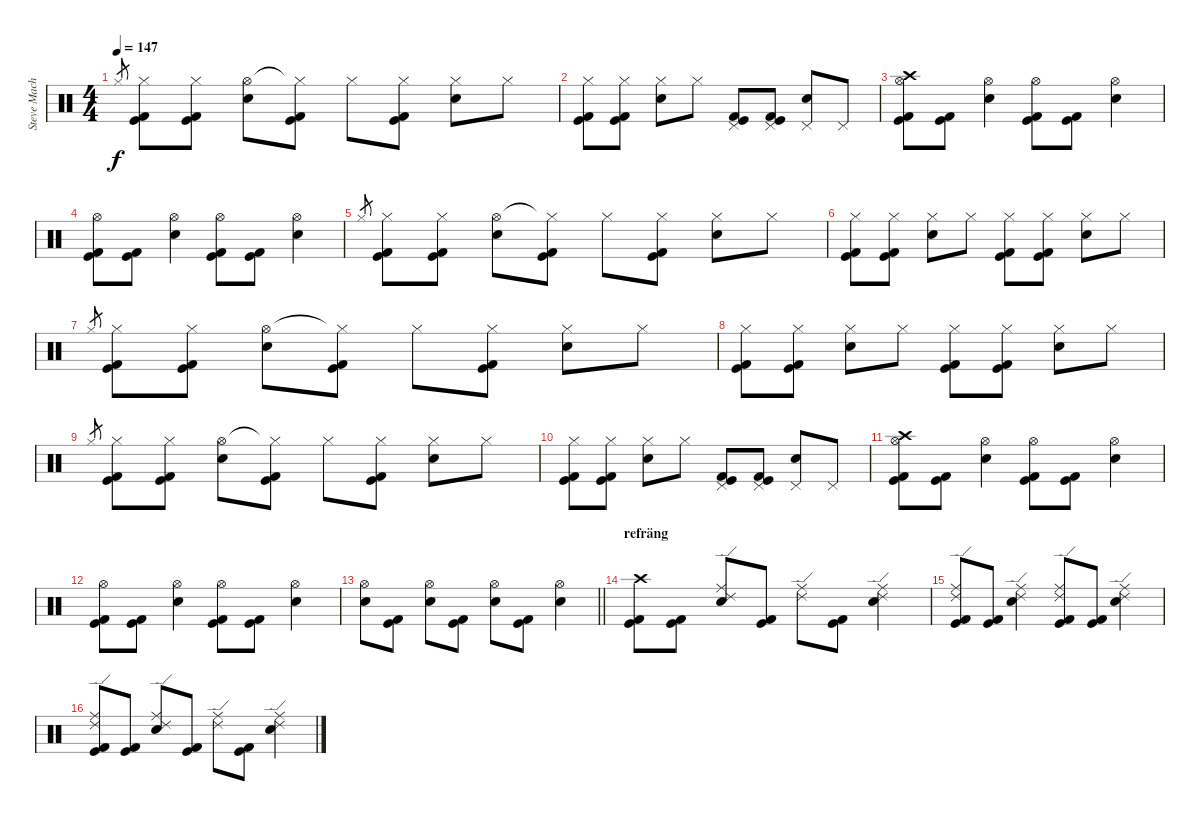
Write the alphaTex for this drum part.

\track ("Steve Machine West" "Steve Mach") {instrument percussion}
\staff {score}
\articulation defaults
\ts (4 4)
\tempo 147
\clef neutral
\ks c "Hi-Hat (closed)".8{gr dy f}
("Hi-Hat (closed)" "Kick (hit)" "Kick (hit) 2").8 ("Hi-Hat (closed)" "Kick (hit)" "Kick (hit) 2").8 ("Hi-Hat (open)" "Electric Snare (hit)").8 ("Hi-Hat (closed)"{t} "Kick (hit)" "Kick (hit) 2").8 "Hi-Hat (closed)".8 ("Hi-Hat (closed)" "Kick (hit)" "Kick (hit) 2").8 ("Hi-Hat (closed)" "Electric Snare (hit)").8 "Hi-Hat (closed)".8 |
("Hi-Hat (closed)" "Kick (hit)" "Kick (hit) 2").8 ("Hi-Hat (closed)" "Kick (hit)" "Kick (hit) 2").8 ("Hi-Hat (closed)" "Electric Snare (hit)").8 "Hi-Hat (closed)".8 ("Pedal Hi-Hat (hit)" "Kick (hit)" "Kick (hit) 2").8 ("Pedal Hi-Hat (hit)" "Kick (hit)" "Kick (hit) 2").8 ("Pedal Hi-Hat (hit)" "Electric Snare (hit)").8 "Pedal Hi-Hat (hit)".8 |
("Crash high (hit)" "Hi-Hat (open)" "Kick (hit)" "Kick (hit) 2").8 ("Kick (hit)" "Kick (hit) 2").8 ("Hi-Hat (open)" "Electric Snare (hit)").4 ("Hi-Hat (open)" "Kick (hit)" "Kick (hit) 2").8 ("Kick (hit)" "Kick (hit) 2").8 ("Hi-Hat (open)" "Electric Snare (hit)").4 |
("Hi-Hat (open)" "Kick (hit)" "Kick (hit) 2").8 ("Kick (hit)" "Kick (hit) 2").8 ("Hi-Hat (open)" "Electric Snare (hit)").4 ("Hi-Hat (open)" "Kick (hit)" "Kick (hit) 2").8 ("Kick (hit)" "Kick (hit) 2").8 ("Hi-Hat (open)" "Electric Snare (hit)").4 |
"Hi-Hat (closed)".8{gr} ("Hi-Hat (closed)" "Kick (hit)" "Kick (hit) 2").8 ("Hi-Hat (closed)" "Kick (hit)" "Kick (hit) 2").8 ("Hi-Hat (open)" "Electric Snare (hit)").8 ("Hi-Hat (closed)"{t} "Kick (hit)" "Kick (hit) 2").8 "Hi-Hat (closed)".8 ("Hi-Hat (closed)" "Kick (hit)" "Kick (hit) 2").8 ("Hi-Hat (closed)" "Electric Snare (hit)").8 "Hi-Hat (closed)".8 |
("Hi-Hat (closed)" "Kick (hit)" "Kick (hit) 2").8 ("Hi-Hat (closed)" "Kick (hit)" "Kick (hit) 2").8 ("Hi-Hat (closed)" "Electric Snare (hit)").8 "Hi-Hat (closed)".8 ("Hi-Hat (closed)" "Kick (hit)" "Kick (hit) 2").8 ("Hi-Hat (closed)" "Kick (hit)" "Kick (hit) 2").8 ("Hi-Hat (closed)" "Electric Snare (hit)").8 "Hi-Hat (closed)".8 |
"Hi-Hat (closed)".8{gr} ("Hi-Hat (closed)" "Kick (hit)" "Kick (hit) 2").8 ("Hi-Hat (closed)" "Kick (hit)" "Kick (hit) 2").8 ("Hi-Hat (open)" "Electric Snare (hit)").8 ("Hi-Hat (closed)"{t} "Kick (hit)" "Kick (hit) 2").8 "Hi-Hat (closed)".8 ("Hi-Hat (closed)" "Kick (hit)" "Kick (hit) 2").8 ("Hi-Hat (closed)" "Electric Snare (hit)").8 "Hi-Hat (closed)".8 |
("Hi-Hat (closed)" "Kick (hit)" "Kick (hit) 2").8 ("Hi-Hat (closed)" "Kick (hit)" "Kick (hit) 2").8 ("Hi-Hat (closed)" "Electric Snare (hit)").8 "Hi-Hat (closed)".8 ("Hi-Hat (closed)" "Kick (hit)" "Kick (hit) 2").8 ("Hi-Hat (closed)" "Kick (hit)" "Kick (hit) 2").8 ("Hi-Hat (closed)" "Electric Snare (hit)").8 "Hi-Hat (closed)".8 |
"Hi-Hat (closed)".8{gr} ("Hi-Hat (closed)" "Kick (hit)" "Kick (hit) 2").8 ("Hi-Hat (closed)" "Kick (hit)" "Kick (hit) 2").8 ("Hi-Hat (open)" "Electric Snare (hit)").8 ("Hi-Hat (closed)"{t} "Kick (hit)" "Kick (hit) 2").8 "Hi-Hat (closed)".8 ("Hi-Hat (closed)" "Kick (hit)" "Kick (hit) 2").8 ("Hi-Hat (closed)" "Electric Snare (hit)").8 "Hi-Hat (closed)".8 |
("Hi-Hat (closed)" "Kick (hit)" "Kick (hit) 2").8 ("Hi-Hat (closed)" "Kick (hit)" "Kick (hit) 2").8 ("Hi-Hat (closed)" "Electric Snare (hit)").8 "Hi-Hat (closed)".8 ("Pedal Hi-Hat (hit)" "Kick (hit)" "Kick (hit) 2").8 ("Pedal Hi-Hat (hit)" "Kick (hit)" "Kick (hit) 2").8 ("Pedal Hi-Hat (hit)" "Electric Snare (hit)").8 "Pedal Hi-Hat (hit)".8 |
("Crash high (hit)" "Hi-Hat (open)" "Kick (hit)" "Kick (hit) 2").8 ("Kick (hit)" "Kick (hit) 2").8 ("Hi-Hat (open)" "Electric Snare (hit)").4 ("Hi-Hat (open)" "Kick (hit)" "Kick (hit) 2").8 ("Kick (hit)" "Kick (hit) 2").8 ("Hi-Hat (open)" "Electric Snare (hit)").4 |
("Hi-Hat (open)" "Kick (hit)" "Kick (hit) 2").8 ("Kick (hit)" "Kick (hit) 2").8 ("Hi-Hat (open)" "Electric Snare (hit)").4 ("Hi-Hat (open)" "Kick (hit)" "Kick (hit) 2").8 ("Kick (hit)" "Kick (hit) 2").8 ("Hi-Hat (open)" "Electric Snare (hit)").4 |
\barLineRight lightlight
("Hi-Hat (open)" "Electric Snare (hit)").8 ("Kick (hit)" "Kick (hit) 2").8 ("Hi-Hat (open)" "Electric Snare (hit)").8 ("Kick (hit)" "Kick (hit) 2").8 ("Hi-Hat (open)" "Electric Snare (hit)").8 ("Kick (hit)" "Kick (hit) 2").8 ("Hi-Hat (open)" "Electric Snare (hit)").4 |
\section ("" "refräng")
("Crash high (hit)" "Kick (hit)" "Kick (hit) 2").8 ("Kick (hit)" "Kick (hit) 2").8 ("Ride (middle)" "Ride (edge) 2" "Electric Snare (hit)").8 ("Kick (hit)" "Kick (hit) 2").8 ("Ride (middle)" "Ride (edge) 2").8 ("Kick (hit)" "Kick (hit) 2").8 ("Ride (middle)" "Ride (edge) 2" "Electric Snare (hit)").4 |
("Ride (middle)" "Ride (edge) 2" "Kick (hit)" "Kick (hit) 2").8 ("Kick (hit)" "Kick (hit) 2").8 ("Ride (middle)" "Ride (edge) 2" "Electric Snare (hit)").4 ("Ride (middle)" "Ride (edge) 2" "Kick (hit)" "Kick (hit) 2").8 ("Kick (hit)" "Kick (hit) 2").8 ("Ride (middle)" "Ride (edge) 2" "Electric Snare (hit)").4 |
("Ride (middle)" "Ride (edge) 2" "Kick (hit)" "Kick (hit) 2").8 ("Kick (hit)" "Kick (hit) 2").8 ("Ride (middle)" "Ride (edge) 2" "Electric Snare (hit)").8 ("Kick (hit)" "Kick (hit) 2").8 ("Ride (middle)" "Ride (edge) 2").8 ("Kick (hit)" "Kick (hit) 2").8 ("Ride (middle)" "Ride (edge) 2" "Electric Snare (hit)").4
